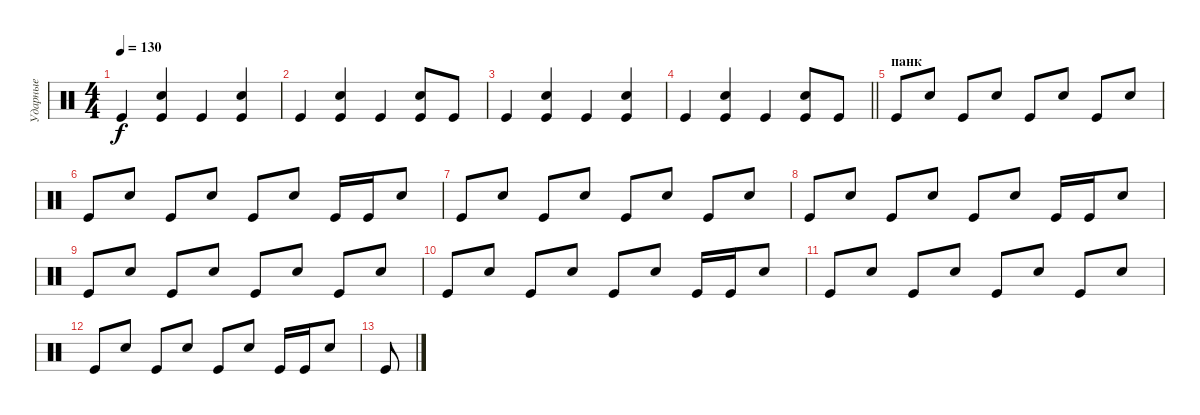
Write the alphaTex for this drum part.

\track ("Ударные" "Ударные") {instrument percussion}
\staff {score}
\articulation defaults
\ts (4 4)
\tempo 130
\clef neutral
\ks c "Kick (hit)".4{dy f}
("Kick (hit)" "Snare (hit) 2").4 "Kick (hit)".4 ("Kick (hit)" "Snare (hit) 2").4 |
"Kick (hit)".4 ("Snare (hit) 2" "Kick (hit)").4 "Kick (hit)".4 ("Snare (hit) 2" "Kick (hit)").8 "Kick (hit)".8 |
"Kick (hit)".4 ("Snare (hit) 2" "Kick (hit)").4 "Kick (hit)".4 ("Snare (hit) 2" "Kick (hit)").4 |
\barLineRight lightlight "Kick (hit)".4
("Snare (hit) 2" "Kick (hit)").4 "Kick (hit)".4 ("Snare (hit) 2" "Kick (hit)").8 "Kick (hit)".8 |
\section ("" "панк")
"Kick (hit)".8 "Snare (hit) 2".8 "Kick (hit)".8 "Snare (hit) 2".8 "Kick (hit)".8 "Snare (hit) 2".8 "Kick (hit)".8 "Snare (hit) 2".8 |
"Kick (hit)".8 "Snare (hit) 2".8 "Kick (hit)".8 "Snare (hit) 2".8 "Kick (hit)".8 "Snare (hit) 2".8 "Kick (hit)".16 "Kick (hit)".16 "Snare (hit) 2".8 |
"Kick (hit)".8 "Snare (hit) 2".8 "Kick (hit)".8 "Snare (hit) 2".8 "Kick (hit)".8 "Snare (hit) 2".8 "Kick (hit)".8 "Snare (hit) 2".8 |
"Kick (hit)".8 "Snare (hit) 2".8 "Kick (hit)".8 "Snare (hit) 2".8 "Kick (hit)".8 "Snare (hit) 2".8 "Kick (hit)".16 "Kick (hit)".16 "Snare (hit) 2".8 |
"Kick (hit)".8 "Snare (hit) 2".8 "Kick (hit)".8 "Snare (hit) 2".8 "Kick (hit)".8 "Snare (hit) 2".8 "Kick (hit)".8 "Snare (hit) 2".8 |
"Kick (hit)".8 "Snare (hit) 2".8 "Kick (hit)".8 "Snare (hit) 2".8 "Kick (hit)".8 "Snare (hit) 2".8 "Kick (hit)".16 "Kick (hit)".16 "Snare (hit) 2".8 |
"Kick (hit)".8 "Snare (hit) 2".8 "Kick (hit)".8 "Snare (hit) 2".8 "Kick (hit)".8 "Snare (hit) 2".8 "Kick (hit)".8 "Snare (hit) 2".8 |
"Kick (hit)".8 "Snare (hit) 2".8 "Kick (hit)".8 "Snare (hit) 2".8 "Kick (hit)".8 "Snare (hit) 2".8 "Kick (hit)".16 "Kick (hit)".16 "Snare (hit) 2".8 |
"Kick (hit)".8
